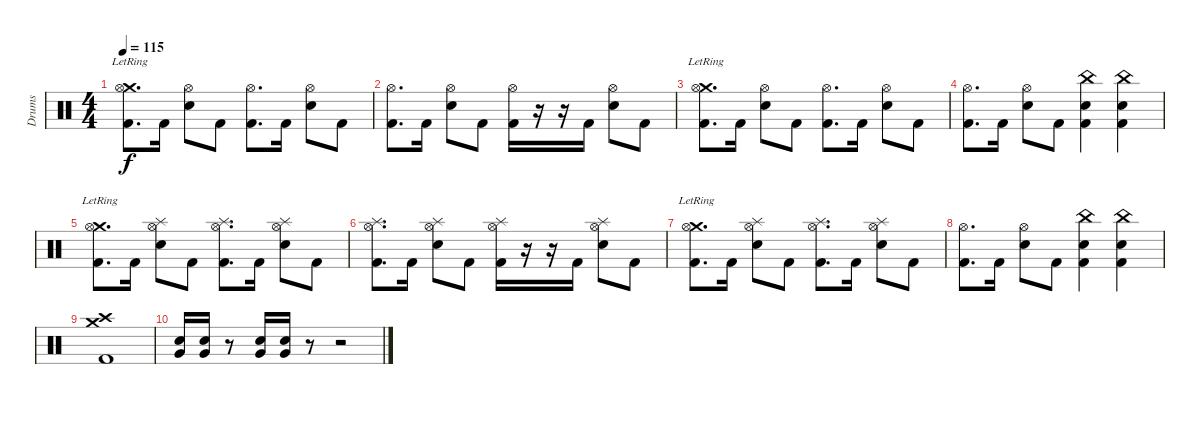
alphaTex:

\track ("Drums" "Drums") {instrument percussion}
\staff {score}
\articulation defaults
\ts (4 4)
\tempo 115
\clef neutral
\ks c
("Crash medium (hit)"{lr} "Kick (hit) 2" "Hi-Hat (open)").8{d dy f} "Kick (hit) 2".16 ("Electric Snare (hit)" "Hi-Hat (open)").8 "Kick (hit) 2".8 ("Kick (hit) 2" "Hi-Hat (open)").8{d} "Kick (hit) 2".16 ("Electric Snare (hit)" "Hi-Hat (open)").8 "Kick (hit) 2".8 |
("Kick (hit) 2" "Hi-Hat (open)").8{d} "Kick (hit) 2".16 ("Electric Snare (hit)" "Hi-Hat (open)").8 "Kick (hit) 2".8 ("Kick (hit) 2" "Hi-Hat (open)").16 r.16 r.16 "Kick (hit) 2".16 ("Electric Snare (hit)" "Hi-Hat (open)").8 "Kick (hit) 2".8 |
("Crash medium (hit)"{lr} "Kick (hit) 2" "Hi-Hat (open)").8{d} "Kick (hit) 2".16 ("Electric Snare (hit)" "Hi-Hat (open)").8 "Kick (hit) 2".8 ("Kick (hit) 2" "Hi-Hat (open)").8{d} "Kick (hit) 2".16 ("Electric Snare (hit)" "Hi-Hat (open)").8 "Kick (hit) 2".8 |
("Kick (hit) 2" "Hi-Hat (open)").8{d} "Kick (hit) 2".16 ("Electric Snare (hit)" "Hi-Hat (open)").8 "Kick (hit) 2".8 ("China (hit)" "Electric Snare (hit)" "Kick (hit) 2").4 ("China (hit)" "Electric Snare (hit)" "Kick (hit) 2").4 |
("Crash medium (hit)"{lr} "Kick (hit) 2" "Hi-Hat (open)").8{d} "Kick (hit) 2".16 ("Splash (hit)" "Electric Snare (hit)" "Hi-Hat (open)").8 "Kick (hit) 2".8 ("Splash (hit)" "Kick (hit) 2" "Hi-Hat (open)").8{d} "Kick (hit) 2".16 ("Splash (hit)" "Electric Snare (hit)" "Hi-Hat (open)").8 "Kick (hit) 2".8 |
("Splash (hit)" "Kick (hit) 2" "Hi-Hat (open)").8{d} "Kick (hit) 2".16 ("Splash (hit)" "Electric Snare (hit)" "Hi-Hat (open)").8 "Kick (hit) 2".8 ("Splash (hit)" "Kick (hit) 2" "Hi-Hat (open)").16 r.16 r.16 "Kick (hit) 2".16 ("Splash (hit)" "Electric Snare (hit)" "Hi-Hat (open)").8 "Kick (hit) 2".8 |
("Crash medium (hit)"{lr} "Kick (hit) 2" "Hi-Hat (open)").8{d} "Kick (hit) 2".16 ("Splash (hit)" "Electric Snare (hit)" "Hi-Hat (open)").8 "Kick (hit) 2".8 ("Splash (hit)" "Kick (hit) 2" "Hi-Hat (open)").8{d} "Kick (hit) 2".16 ("Splash (hit)" "Electric Snare (hit)" "Hi-Hat (open)").8 "Kick (hit) 2".8 |
("Kick (hit) 2" "Hi-Hat (open)").8{d} "Kick (hit) 2".16 ("Electric Snare (hit)" "Hi-Hat (open)").8 "Kick (hit) 2".8 ("China (hit)" "Electric Snare (hit)" "Kick (hit) 2").4 ("China (hit)" "Electric Snare (hit)" "Kick (hit) 2").4 |
("Crash high (hit)" "Crash medium (hit)" "Kick (hit) 2").1 |
("Very Low Tom (hit)" "Electric Snare (hit)").16 ("Very Low Tom (hit)" "Electric Snare (hit)").16 r.8 ("Very Low Tom (hit)" "Electric Snare (hit)").16 ("Very Low Tom (hit)" "Electric Snare (hit)").16 r.8 r.2
